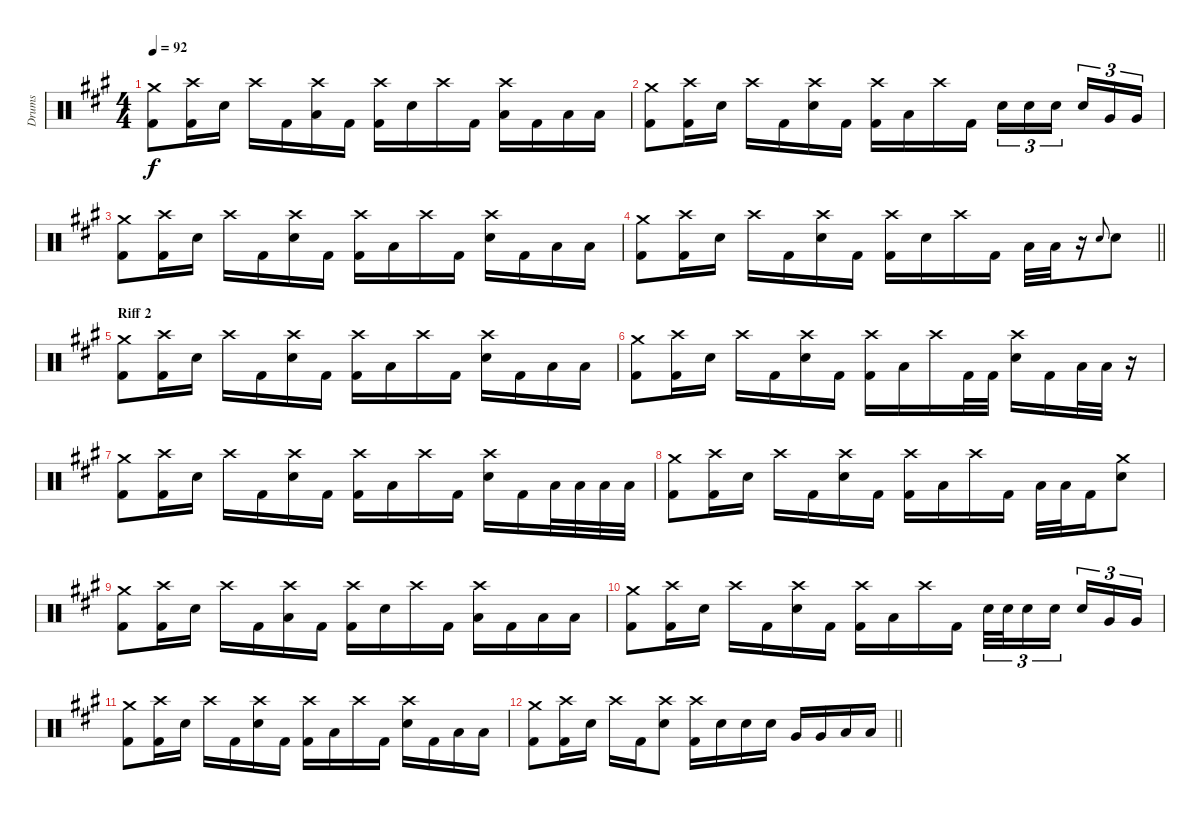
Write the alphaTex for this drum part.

\track ("Drums" "Drums") {instrument percussion}
\staff {score}
\articulation defaults
\ts (4 4)
\tempo 92
\clef neutral
\ks a
("Crash medium (hit)" "Kick (hit) 2").8{dy f} ("Kick (hit) 2" "Crash high (hit)").16 "Electric Snare (hit)".16 "Crash high (hit)".16 "Kick (hit) 2".16 ("Low Tom (hit)" "Crash high (hit)").16 "Kick (hit) 2".16 ("Crash high (hit)" "Kick (hit) 2").16 "Electric Snare (hit)".16 "Crash high (hit)".16 "Kick (hit) 2".16 ("Low Tom (hit)" "Crash high (hit)").16 "Kick (hit) 2".16 "Low Tom (hit)".16 "Low Floor Tom (hit)".16 |
("Crash medium (hit)" "Kick (hit) 2").8 ("Kick (hit) 2" "Crash high (hit)").16 "Electric Snare (hit)".16 "Crash high (hit)".16 "Kick (hit) 2".16 ("Electric Snare (hit)" "Crash high (hit)").16 "Kick (hit) 2".16 ("Crash high (hit)" "Kick (hit) 2").16 "Low Tom (hit)".16 "Crash high (hit)".16 "Kick (hit) 2".16 "Electric Snare (hit)".16{tu (3 2)} "Electric Snare (hit)".16{tu (3 2)} "Electric Snare (hit)".16{tu (3 2) beam splitsecondary} "Electric Snare (hit)".16{tu (3 2)} "Very Low Tom (hit)".16{tu (3 2)} "Very Low Tom (hit)".16{tu (3 2)} |
("Crash medium (hit)" "Kick (hit) 2").8 ("Kick (hit) 2" "Crash high (hit)").16 "Electric Snare (hit)".16 "Crash high (hit)".16 "Kick (hit) 2".16 ("Electric Snare (hit)" "Crash high (hit)").16 "Kick (hit) 2".16 ("Crash high (hit)" "Kick (hit) 2").16 "Low Tom (hit)".16 "Crash high (hit)".16 "Kick (hit) 2".16 ("Electric Snare (hit)" "Crash high (hit)").16 "Kick (hit) 2".16 "Low Floor Tom (hit)".16 "Low Floor Tom (hit)".16 |
\barLineRight lightlight
("Crash medium (hit)" "Kick (hit) 2").8 ("Kick (hit) 2" "Crash high (hit)").16 "Electric Snare (hit)".16 "Crash high (hit)".16 "Kick (hit) 2".16 ("Electric Snare (hit)" "Crash high (hit)").16 "Kick (hit) 2".16 ("Kick (hit) 2" "Crash high (hit)").16 "Electric Snare (hit)".16 "Crash high (hit)".16 "Kick (hit) 2".16 "Low Floor Tom (hit)".32 "Low Floor Tom (hit)".32 r.16 "Electric Snare (hit)".8{gr onbeat} "Electric Snare (hit)".8 |
\section ("" "Riff 2")
("Crash medium (hit)" "Kick (hit) 2").8 ("Kick (hit) 2" "Crash high (hit)").16 "Electric Snare (hit)".16 "Crash high (hit)".16 "Kick (hit) 2".16 ("Electric Snare (hit)" "Crash high (hit)").16 "Kick (hit) 2".16 ("Crash high (hit)" "Kick (hit) 2").16 "Low Tom (hit)".16 "Crash high (hit)".16 "Kick (hit) 2".16 ("Electric Snare (hit)" "Crash high (hit)").16 "Kick (hit) 2".16 "Low Tom (hit)".16 "Low Floor Tom (hit)".16 |
("Crash medium (hit)" "Kick (hit) 2").8 ("Kick (hit) 2" "Crash high (hit)").16 "Electric Snare (hit)".16 "Crash high (hit)".16 "Kick (hit) 2".16 ("Electric Snare (hit)" "Crash high (hit)").16 "Kick (hit) 2".16 ("Crash high (hit)" "Kick (hit) 2").16 "Low Tom (hit)".16 "Crash high (hit)".16 "Kick (hit) 2".32 "Kick (hit) 2".32 ("Electric Snare (hit)" "Crash high (hit)").16 "Kick (hit) 2".16 "Low Floor Tom (hit)".32 "Low Floor Tom (hit)".32 r.16 |
("Crash medium (hit)" "Kick (hit) 2").8 ("Kick (hit) 2" "Crash high (hit)").16 "Electric Snare (hit)".16 "Crash high (hit)".16 "Kick (hit) 2".16 ("Electric Snare (hit)" "Crash high (hit)").16 "Kick (hit) 2".16 ("Crash high (hit)" "Kick (hit) 2").16 "Low Tom (hit)".16 "Crash high (hit)".16 "Kick (hit) 2".16 ("Electric Snare (hit)" "Crash high (hit)").16 "Kick (hit) 2".16 "Low Floor Tom (hit)".32 "Low Floor Tom (hit)".32 "Low Floor Tom (hit)".32 "Low Floor Tom (hit)".32 |
("Crash medium (hit)" "Kick (hit) 2").8 ("Kick (hit) 2" "Crash high (hit)").16 "Electric Snare (hit)".16 "Crash high (hit)".16 "Kick (hit) 2".16 ("Electric Snare (hit)" "Crash high (hit)").16 "Kick (hit) 2".16 ("Crash high (hit)" "Kick (hit) 2").16 "Low Tom (hit)".16 "Crash high (hit)".16 "Kick (hit) 2".16 "Low Floor Tom (hit)".32 "Low Floor Tom (hit)".32 "Kick (hit) 2".16 ("Electric Snare (hit)" "Crash medium (hit)").8 |
("Crash medium (hit)" "Kick (hit) 2").8 ("Kick (hit) 2" "Crash high (hit)").16 "Electric Snare (hit)".16 "Crash high (hit)".16 "Kick (hit) 2".16 ("Low Tom (hit)" "Crash high (hit)").16 "Kick (hit) 2".16 ("Crash high (hit)" "Kick (hit) 2").16 "Electric Snare (hit)".16 "Crash high (hit)".16 "Kick (hit) 2".16 ("Low Tom (hit)" "Crash high (hit)").16 "Kick (hit) 2".16 "Low Tom (hit)".16 "Low Floor Tom (hit)".16 |
("Crash medium (hit)" "Kick (hit) 2").8 ("Kick (hit) 2" "Crash high (hit)").16 "Electric Snare (hit)".16 "Crash high (hit)".16 "Kick (hit) 2".16 ("Electric Snare (hit)" "Crash high (hit)").16 "Kick (hit) 2".16 ("Crash high (hit)" "Kick (hit) 2").16 "Low Tom (hit)".16 "Crash high (hit)".16 "Kick (hit) 2".16 "Electric Snare (hit)".32{tu (3 2)} "Electric Snare (hit)".32{tu (3 2)} "Electric Snare (hit)".16{tu (3 2)} "Electric Snare (hit)".16{tu (3 2) beam splitsecondary} "Electric Snare (hit)".16{tu (3 2)} "Very Low Tom (hit)".16{tu (3 2)} "Very Low Tom (hit)".16{tu (3 2)} |
("Crash medium (hit)" "Kick (hit) 2").8 ("Kick (hit) 2" "Crash high (hit)").16 "Electric Snare (hit)".16 "Crash high (hit)".16 "Kick (hit) 2".16 ("Electric Snare (hit)" "Crash high (hit)").16 "Kick (hit) 2".16 ("Crash high (hit)" "Kick (hit) 2").16 "Low Tom (hit)".16 "Crash high (hit)".16 "Kick (hit) 2".16 ("Electric Snare (hit)" "Crash high (hit)").16 "Kick (hit) 2".16 "Low Floor Tom (hit)".16 "Low Floor Tom (hit)".16 |
\barLineRight lightlight
("Crash medium (hit)" "Kick (hit) 2").8 ("Kick (hit) 2" "Crash high (hit)").16 "Electric Snare (hit)".16 "Crash high (hit)".16 "Kick (hit) 2".16 ("Electric Snare (hit)" "Crash high (hit)").8 ("Kick (hit) 2" "Crash high (hit)").16 "Electric Snare (hit)".16 "Electric Snare (hit)".16 "Electric Snare (hit)".16 "Very Low Tom (hit)".16 "Very Low Tom (hit)".16 "Low Floor Tom (hit)".16 "Low Floor Tom (hit)".16
